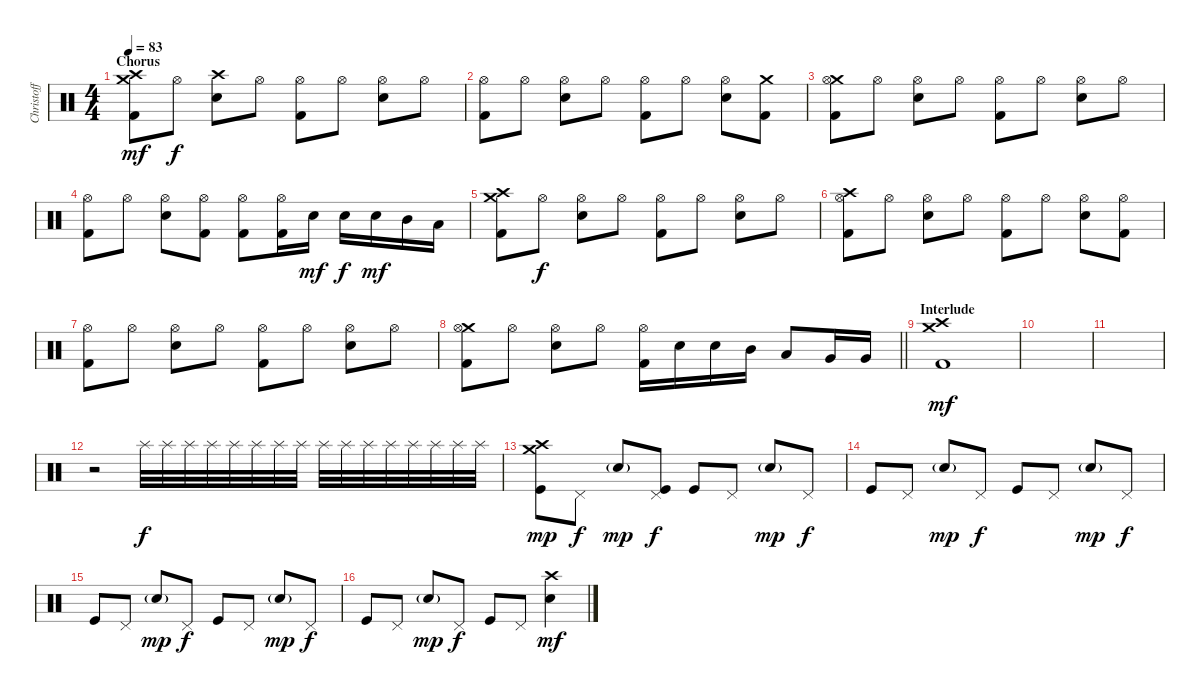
\track ("Christoff" "Christoff") {instrument percussion}
\staff {score}
\articulation defaults
\ts (4 4)
\section ("" "Chorus")
\tempo 83
\clef neutral
\ks c
("Crash medium (hit)" "Crash high (hit)" "Kick (hit) 2").8{dy mf} "Hi-Hat (open)".8{dy f} ("Crash high (hit)" "Electric Snare (hit)").8 "Hi-Hat (open)".8 ("Hi-Hat (open)" "Kick (hit) 2").8 "Hi-Hat (open)".8 ("Hi-Hat (open)" "Electric Snare (hit)").8 "Hi-Hat (open)".8 |
("Hi-Hat (open)" "Kick (hit) 2").8 "Hi-Hat (open)".8 ("Hi-Hat (open)" "Electric Snare (hit)").8 "Hi-Hat (open)".8 ("Hi-Hat (open)" "Kick (hit) 2").8 "Hi-Hat (open)".8 ("Hi-Hat (open)" "Electric Snare (hit)").8 ("Crash medium (hit)" "Kick (hit) 2").8 |
("Crash medium (hit)" "Hi-Hat (open)" "Kick (hit) 2").8 "Hi-Hat (open)".8 ("Hi-Hat (open)" "Electric Snare (hit)").8 "Hi-Hat (open)".8 ("Hi-Hat (open)" "Kick (hit) 2").8 "Hi-Hat (open)".8 ("Hi-Hat (open)" "Electric Snare (hit)").8 "Hi-Hat (open)".8 |
("Hi-Hat (open)" "Kick (hit) 2").8 "Hi-Hat (open)".8 ("Hi-Hat (open)" "Electric Snare (hit)").8 ("Hi-Hat (open)" "Kick (hit) 2").8 ("Hi-Hat (open)" "Kick (hit) 2").8 ("Hi-Hat (open)" "Kick (hit) 2").16 "Electric Snare (hit)".16{dy mf} "Electric Snare (hit)".16{dy f} "Electric Snare (hit)".16{dy mf} "Mid Tom (hit)".16 "Low Tom (hit)".16 |
("Crash medium (hit)" "Crash high (hit)" "Kick (hit) 2").8 "Hi-Hat (open)".8{dy f} ("Hi-Hat (open)" "Electric Snare (hit)").8 "Hi-Hat (open)".8 ("Hi-Hat (open)" "Kick (hit) 2").8 "Hi-Hat (open)".8 ("Hi-Hat (open)" "Electric Snare (hit)").8 "Hi-Hat (open)".8 |
("Crash high (hit)" "Hi-Hat (open)" "Kick (hit) 2").8 "Hi-Hat (open)".8 ("Hi-Hat (open)" "Electric Snare (hit)").8 "Hi-Hat (open)".8 ("Hi-Hat (open)" "Kick (hit) 2").8 "Hi-Hat (open)".8 ("Hi-Hat (open)" "Electric Snare (hit)").8 ("Hi-Hat (open)" "Kick (hit) 2").8 |
("Hi-Hat (open)" "Kick (hit) 2").8 "Hi-Hat (open)".8 ("Hi-Hat (open)" "Electric Snare (hit)").8 "Hi-Hat (open)".8 ("Hi-Hat (open)" "Kick (hit) 2").8 "Hi-Hat (open)".8 ("Hi-Hat (open)" "Electric Snare (hit)").8 "Hi-Hat (open)".8 |
\barLineRight lightlight
("Crash medium (hit)" "Hi-Hat (open)" "Kick (hit) 2").8 "Hi-Hat (open)".8 ("Hi-Hat (open)" "Electric Snare (hit)").8 "Hi-Hat (open)".8 ("Hi-Hat (open)" "Kick (hit) 2").16 "Electric Snare (hit)".16 "Electric Snare (hit)".16 "Mid Tom (hit)".16 "Low Tom (hit)".8 "Very Low Tom (hit)".16 "Very Low Tom (hit)".16 |
\section ("" "Interlude")
("Crash medium (hit)" "Crash high (hit)" "Kick (hit) 2").1{dy mf} |
|
|
r.2{volume 4} "Splash (hit)".32{dy f volume 14} "Splash (hit)".32 "Splash (hit)".32 "Splash (hit)".32 "Splash (hit)".32 "Splash (hit)".32 "Splash (hit)".32 "Splash (hit)".32 "Splash (hit)".32 "Splash (hit)".32 "Splash (hit)".32 "Splash (hit)".32 "Splash (hit)".32 "Splash (hit)".32 "Splash (hit)".32 "Splash (hit)".32 |
("Crash medium (hit)" "Crash high (hit)" "Kick (hit)").8{dy mp volume 12} "Pedal Hi-Hat (hit)".8{dy f} "Snare (hit) 2"{g}.8{dy mp} ("Pedal Hi-Hat (hit)" "Kick (hit)").8{dy f} "Kick (hit)".8 "Pedal Hi-Hat (hit)".8 "Snare (hit) 2"{g}.8{dy mp} "Pedal Hi-Hat (hit)".8{dy f} |
"Kick (hit)".8 "Pedal Hi-Hat (hit)".8 "Snare (hit) 2"{g}.8{dy mp} "Pedal Hi-Hat (hit)".8{dy f} "Kick (hit)".8 "Pedal Hi-Hat (hit)".8 "Snare (hit) 2"{g}.8{dy mp} "Pedal Hi-Hat (hit)".8{dy f} |
"Kick (hit)".8 "Pedal Hi-Hat (hit)".8 "Snare (hit) 2"{g}.8{dy mp} "Pedal Hi-Hat (hit)".8{dy f} "Kick (hit)".8 "Pedal Hi-Hat (hit)".8 "Snare (hit) 2"{g}.8{dy mp} "Pedal Hi-Hat (hit)".8{dy f} |
"Kick (hit)".8 "Pedal Hi-Hat (hit)".8 "Snare (hit) 2"{g}.8{dy mp} "Pedal Hi-Hat (hit)".8{dy f} "Kick (hit)".8 "Pedal Hi-Hat (hit)".8 ("Crash high (hit)" "Electric Snare (hit)").4{dy mf volume 16}
